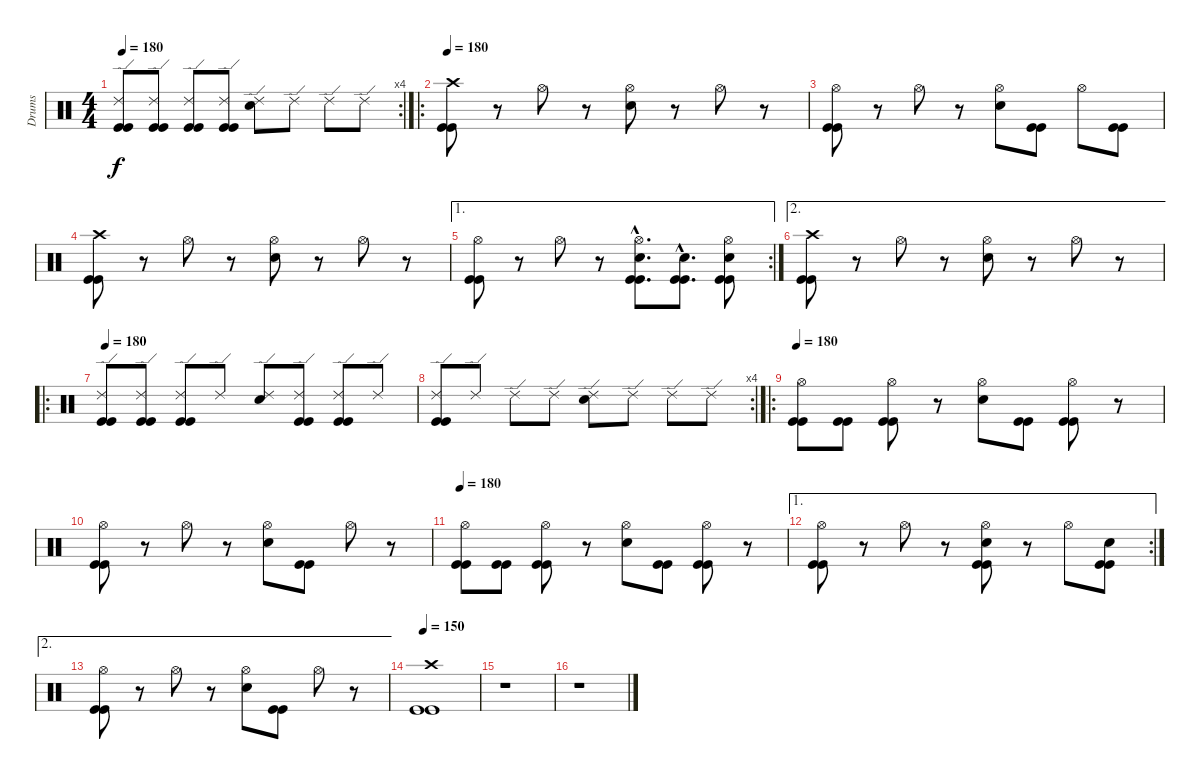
\track ("Drums" "Drums") {instrument percussion}
\staff {score}
\articulation defaults
\rc 4
\ts (4 4)
\tempo 180
\clef neutral
\ks c
("Ride (edge) 2" "Kick (hit)" "Kick (hit)").8{dy f} ("Ride (edge) 2" "Kick (hit)" "Kick (hit)").8 ("Ride (edge) 2" "Kick (hit)" "Kick (hit)").8 ("Ride (edge) 2" "Kick (hit)" "Kick (hit)").8 ("Ride (edge) 2" "Snare (hit) 2").8 "Ride (edge) 2".8 "Ride (edge) 2".8 "Ride (edge) 2".8 |
\ro
\tempo 180
("Crash high (hit)" "Kick (hit)" "Kick (hit)").8 r.8 "Hi-Hat (open)".8 r.8 ("Hi-Hat (open)" "Snare (hit) 2").8 r.8 "Hi-Hat (open)".8 r.8 |
("Hi-Hat (open)" "Kick (hit)" "Kick (hit)").8 r.8 "Hi-Hat (open)".8 r.8 ("Hi-Hat (open)" "Snare (hit) 2").8 ("Kick (hit)" "Kick (hit)").8 "Hi-Hat (open)".8 ("Kick (hit)" "Kick (hit)").8 |
("Crash high (hit)" "Kick (hit)" "Kick (hit)").8 r.8 "Hi-Hat (open)".8 r.8 ("Hi-Hat (open)" "Snare (hit) 2").8 r.8 "Hi-Hat (open)".8 r.8 |
\ae 1
\rc 2
("Hi-Hat (open)" "Kick (hit)" "Kick (hit)").8 r.8 "Hi-Hat (open)".8 r.8 ("Hi-Hat (open)"{hac} "Snare (hit) 2"{hac} "Kick (hit)"{hac} "Kick (hit)"{hac}).8{d} ("Snare (hit) 2"{hac} "Kick (hit)"{hac} "Kick (hit)"{hac}).8{d} ("Hi-Hat (open)" "Snare (hit) 2" "Kick (hit)" "Kick (hit)").8 |
\ae 2
("Crash high (hit)" "Kick (hit)" "Kick (hit)").8 r.8 "Hi-Hat (open)".8 r.8 ("Hi-Hat (open)" "Snare (hit) 2").8 r.8 "Hi-Hat (open)".8 r.8 |
\ro
\tempo 180
("Ride (edge) 2" "Kick (hit)" "Kick (hit)").8 ("Ride (edge) 2" "Kick (hit)" "Kick (hit)").8 ("Ride (edge) 2" "Kick (hit)" "Kick (hit)").8 "Ride (edge) 2".8 ("Ride (edge) 2" "Snare (hit) 2").8 ("Ride (edge) 2" "Kick (hit)" "Kick (hit)").8 ("Ride (edge) 2" "Kick (hit)" "Kick (hit)").8 "Ride (edge) 2".8 |
\rc 4
("Ride (edge) 2" "Kick (hit)" "Kick (hit)").8 "Ride (edge) 2".8 "Ride (edge) 2".8 "Ride (edge) 2".8 ("Ride (edge) 2" "Snare (hit) 2").8 "Ride (edge) 2".8 "Ride (edge) 2".8 "Ride (edge) 2".8 |
\ro
\tempo 180
("Hi-Hat (open)" "Kick (hit)" "Kick (hit)").8 ("Kick (hit)" "Kick (hit)").8 ("Hi-Hat (open)" "Kick (hit)" "Kick (hit)").8 r.8 ("Hi-Hat (open)" "Snare (hit) 2").8 ("Kick (hit)" "Kick (hit)").8 ("Hi-Hat (open)" "Kick (hit)" "Kick (hit)").8 r.8 |
("Hi-Hat (open)" "Kick (hit)" "Kick (hit)").8 r.8 "Hi-Hat (open)".8 r.8 ("Hi-Hat (open)" "Snare (hit) 2").8 ("Kick (hit)" "Kick (hit)").8 "Hi-Hat (open)".8 r.8 |
\tempo 180
("Hi-Hat (open)" "Kick (hit)" "Kick (hit)").8 ("Kick (hit)" "Kick (hit)").8 ("Hi-Hat (open)" "Kick (hit)" "Kick (hit)").8 r.8 ("Hi-Hat (open)" "Snare (hit) 2").8 ("Kick (hit)" "Kick (hit)").8 ("Hi-Hat (open)" "Kick (hit)" "Kick (hit)").8 r.8 |
\ae 1
\rc 2
("Hi-Hat (open)" "Kick (hit)" "Kick (hit)").8 r.8 "Hi-Hat (open)".8 r.8 ("Hi-Hat (open)" "Snare (hit) 2" "Kick (hit)" "Kick (hit)").8 r.8 "Hi-Hat (open)".8 ("Snare (hit) 2" "Kick (hit)" "Kick (hit)").8 |
\ae 2
("Hi-Hat (open)" "Kick (hit)" "Kick (hit)").8 r.8 "Hi-Hat (open)".8 r.8 ("Hi-Hat (open)" "Snare (hit) 2").8 ("Kick (hit)" "Kick (hit)").8 "Hi-Hat (open)".8 r.8 |
\tempo 150
("Crash high (hit)" "Kick (hit)" "Kick (hit)").1 |
r.1 |
r.1
